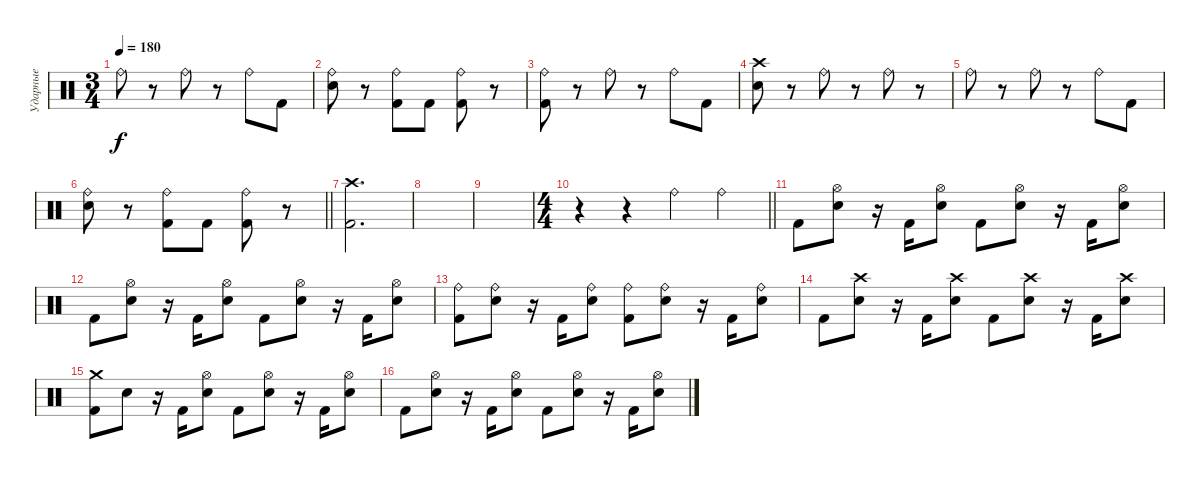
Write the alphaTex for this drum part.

\track ("Ударные" "Ударные") {instrument percussion}
\staff {score}
\articulation defaults
\ts (3 4)
\tempo 180
\clef neutral
\ks c "Ride (bell)".8{dy f}
r.8 "Ride (bell)".8 r.8 "Ride (bell)".8 "Kick (hit) 2".8 |
("Ride (bell)" "Electric Snare (hit)").8 r.8 ("Ride (bell)" "Kick (hit) 2").8 "Kick (hit) 2".8 ("Ride (bell)" "Kick (hit) 2").8 r.8 |
("Ride (bell)" "Kick (hit) 2").8 r.8 "Ride (bell)".8 r.8 "Ride (bell)".8 "Kick (hit) 2".8 |
("Crash high (hit)" "Electric Snare (hit)").8 r.8 "Ride (bell)".8 r.8 "Ride (bell)".8 r.8 |
"Ride (bell)".8 r.8 "Ride (bell)".8 r.8 "Ride (bell)".8 "Kick (hit) 2".8 |
\barLineRight lightlight
("Ride (bell)" "Electric Snare (hit)").8 r.8 ("Ride (bell)" "Kick (hit) 2").8 "Kick (hit) 2".8 ("Ride (bell)" "Kick (hit) 2").8 r.8 |
\section ("" "")
("Crash high (hit)" "Kick (hit) 2").2{d} |
|
|
\ts (4 4)
\barLineRight lightlight
r.4 r.4 "Ride (bell)".4 "Ride (bell)".4 |
\section ("" "")
"Kick (hit) 2".8 ("Hi-Hat (open)" "Electric Snare (hit)").8 r.16 "Kick (hit) 2".16 ("Hi-Hat (open)" "Electric Snare (hit)").8 "Kick (hit) 2".8 ("Hi-Hat (open)" "Electric Snare (hit)").8 r.16 "Kick (hit) 2".16 ("Hi-Hat (open)" "Electric Snare (hit)").8 |
"Kick (hit) 2".8 ("Hi-Hat (open)" "Electric Snare (hit)").8 r.16 "Kick (hit) 2".16 ("Hi-Hat (open)" "Electric Snare (hit)").8 "Kick (hit) 2".8 ("Hi-Hat (open)" "Electric Snare (hit)").8 r.16 "Kick (hit) 2".16 ("Hi-Hat (open)" "Electric Snare (hit)").8 |
("Ride (bell)" "Kick (hit) 2").8 ("Ride (bell)" "Electric Snare (hit)").8 r.16 "Kick (hit) 2".16 ("Ride (bell)" "Electric Snare (hit)").8 ("Ride (bell)" "Kick (hit) 2").8 ("Ride (bell)" "Electric Snare (hit)").8 r.16 "Kick (hit) 2".16 ("Ride (bell)" "Electric Snare (hit)").8 |
"Kick (hit) 2".8 ("Crash high (hit)" "Electric Snare (hit)").8 r.16 "Kick (hit) 2".16 ("Crash high (hit)" "Electric Snare (hit)").8 "Kick (hit) 2".8 ("Crash high (hit)" "Electric Snare (hit)").8 r.16 "Kick (hit) 2".16 ("Crash high (hit)" "Electric Snare (hit)").8 |
("Crash medium (hit)" "Kick (hit) 2").8 "Electric Snare (hit)".8 r.16 "Kick (hit) 2".16 ("Hi-Hat (open)" "Electric Snare (hit)").8 "Kick (hit) 2".8 ("Hi-Hat (open)" "Electric Snare (hit)").8 r.16 "Kick (hit) 2".16 ("Hi-Hat (open)" "Electric Snare (hit)").8 |
"Kick (hit) 2".8 ("Hi-Hat (open)" "Electric Snare (hit)").8 r.16 "Kick (hit) 2".16 ("Hi-Hat (open)" "Electric Snare (hit)").8 "Kick (hit) 2".8 ("Hi-Hat (open)" "Electric Snare (hit)").8 r.16 "Kick (hit) 2".16 ("Hi-Hat (open)" "Electric Snare (hit)").8
